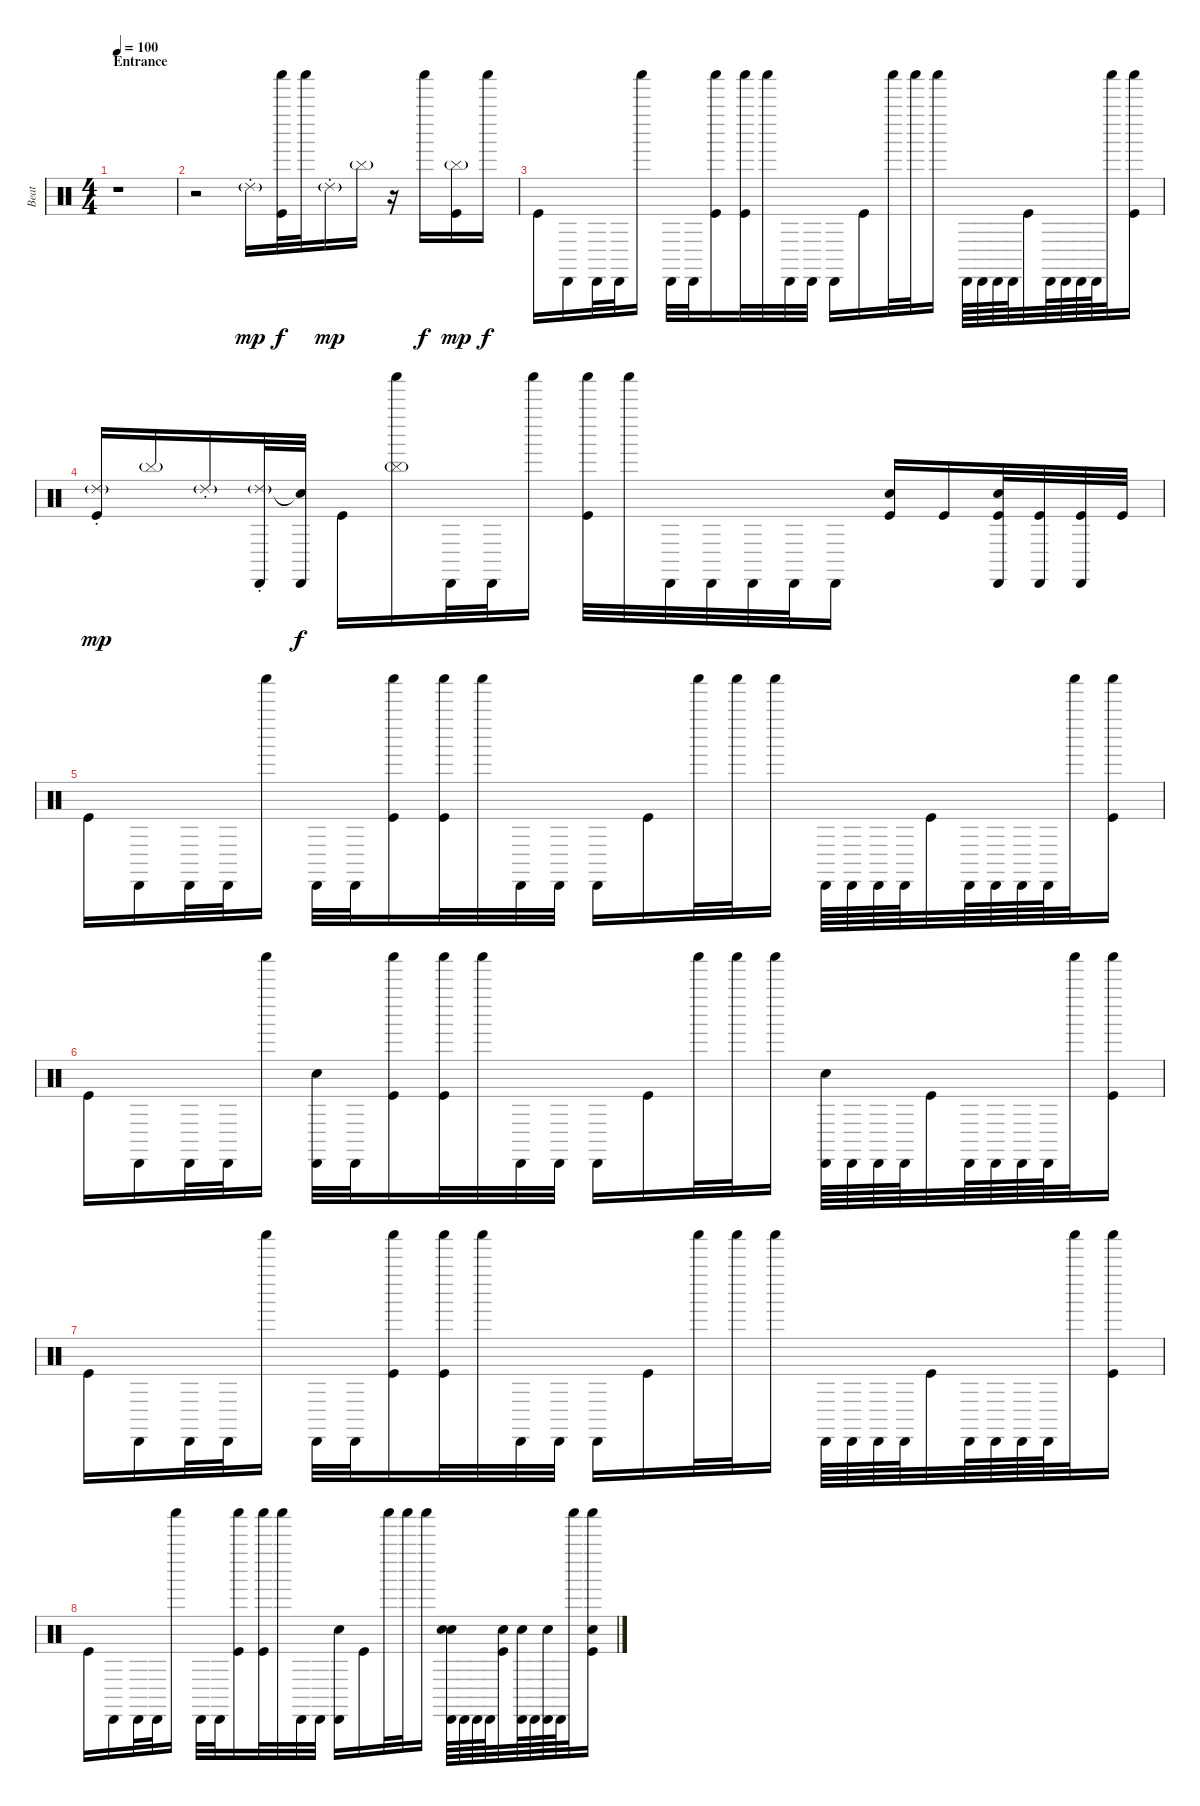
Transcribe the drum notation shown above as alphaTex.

\track ("Beat" "Beat") {instrument percussion}
\staff {score}
\articulation defaults
\ts (4 4)
\section ("" "Entrance")
\tempo 100
\clef neutral
\ks c
r.1{dy mp} |
r.2 "Ride (choke) 2"{g}.16 ("Shaker (hit)" "Kick (hit)").32{dy f} "Shaker (hit)".32 "Ride (choke) 2"{g}.16{dy mp} "Cymbal (hit)"{g}.16 r.16 "Shaker (hit)".16{dy f} ("Cymbal (hit)"{g} "Kick (hit)").16{dy mp} "Shaker (hit)".16{dy f} |
"Kick (hit)".16 "Cabasa (hit)".16 "Cabasa (hit)".32 "Cabasa (hit)".32 "Shaker (hit)".16 "Cabasa (hit)".32 "Cabasa (hit)".32 ("Shaker (hit)" "Kick (hit)").16 ("Shaker (hit)" "Kick (hit)").32 "Shaker (hit)".32 "Cabasa (hit)".32 "Cabasa (hit)".32 "Cabasa (hit)".16 "Kick (hit)".16 "Shaker (hit)".32 "Shaker (hit)".32 "Shaker (hit)".16 "Cabasa (hit)".64 "Cabasa (hit)".64 "Cabasa (hit)".64 "Cabasa (hit)".64 "Kick (hit)".32 "Cabasa (hit)".64 "Cabasa (hit)".64 "Cabasa (hit)".64 "Cabasa (hit)".64 "Shaker (hit)".32 ("Shaker (hit)" "Kick (hit)").16 |
("Ride (choke) 2"{g} "Kick (hit)").16{dy mp} "Cymbal (hit)"{g}.16 "Ride (choke) 2"{g}.16 ("Ride (choke) 2"{g} "Cabasa (hit)").32 ("Snare (hit)"{t} "Cabasa (hit)").32{dy f} "Kick (hit)".16 ("Cymbal (hit)"{g} "Shaker (hit)").16 "Cabasa (hit)".32 "Cabasa (hit)".32 "Shaker (hit)".16 ("Shaker (hit)" "Kick (hit)").32 "Shaker (hit)".32 "Cabasa (hit)".32 "Cabasa (hit)".32 "Cabasa (hit)".32 "Cabasa (hit)".32 "Cabasa (hit)".16 ("Snare (hit) 2" "Kick (hit)").16 "Kick (hit)".16 ("Cabasa (hit)" "Snare (hit) 2" "Kick (hit)").32 ("Cabasa (hit)" "Kick (hit)").32 ("Cabasa (hit)" "Kick (hit)").32 "Kick (hit)".32 |
"Kick (hit)".16 "Cabasa (hit)".16 "Cabasa (hit)".32 "Cabasa (hit)".32 "Shaker (hit)".16 "Cabasa (hit)".32 "Cabasa (hit)".32 ("Shaker (hit)" "Kick (hit)").16 ("Shaker (hit)" "Kick (hit)").32 "Shaker (hit)".32 "Cabasa (hit)".32 "Cabasa (hit)".32 "Cabasa (hit)".16 "Kick (hit)".16 "Shaker (hit)".32 "Shaker (hit)".32 "Shaker (hit)".16 "Cabasa (hit)".64 "Cabasa (hit)".64 "Cabasa (hit)".64 "Cabasa (hit)".64 "Kick (hit)".32 "Cabasa (hit)".64 "Cabasa (hit)".64 "Cabasa (hit)".64 "Cabasa (hit)".64 "Shaker (hit)".32 ("Shaker (hit)" "Kick (hit)").16 |
"Kick (hit)".16 "Cabasa (hit)".16 "Cabasa (hit)".32 "Cabasa (hit)".32 "Shaker (hit)".16 ("Cabasa (hit)" "Snare (hit) 2").32 "Cabasa (hit)".32 ("Shaker (hit)" "Kick (hit)").16 ("Shaker (hit)" "Kick (hit)").32 "Shaker (hit)".32 "Cabasa (hit)".32 "Cabasa (hit)".32 "Cabasa (hit)".16 "Kick (hit)".16 "Shaker (hit)".32 "Shaker (hit)".32 "Shaker (hit)".16 ("Cabasa (hit)" "Snare (hit) 2").64 "Cabasa (hit)".64 "Cabasa (hit)".64 "Cabasa (hit)".64 "Kick (hit)".32 "Cabasa (hit)".64 "Cabasa (hit)".64 "Cabasa (hit)".64 "Cabasa (hit)".64 "Shaker (hit)".32 ("Shaker (hit)" "Kick (hit)").16 |
"Kick (hit)".16 "Cabasa (hit)".16 "Cabasa (hit)".32 "Cabasa (hit)".32 "Shaker (hit)".16 "Cabasa (hit)".32 "Cabasa (hit)".32 ("Shaker (hit)" "Kick (hit)").16 ("Shaker (hit)" "Kick (hit)").32 "Shaker (hit)".32 "Cabasa (hit)".32 "Cabasa (hit)".32 "Cabasa (hit)".16 "Kick (hit)".16 "Shaker (hit)".32 "Shaker (hit)".32 "Shaker (hit)".16 "Cabasa (hit)".64 "Cabasa (hit)".64 "Cabasa (hit)".64 "Cabasa (hit)".64 "Kick (hit)".32 "Cabasa (hit)".64 "Cabasa (hit)".64 "Cabasa (hit)".64 "Cabasa (hit)".64 "Shaker (hit)".32 ("Shaker (hit)" "Kick (hit)").16 |
"Kick (hit)".16 "Cabasa (hit)".16 "Cabasa (hit)".32 "Cabasa (hit)".32 "Shaker (hit)".16 "Cabasa (hit)".32 "Cabasa (hit)".32 ("Shaker (hit)" "Kick (hit)").16 ("Shaker (hit)" "Kick (hit)").32 "Shaker (hit)".32 "Cabasa (hit)".32 "Cabasa (hit)".32 ("Cabasa (hit)" "Snare (hit) 2").16 "Kick (hit)".16 "Shaker (hit)".32 "Shaker (hit)".32 "Shaker (hit)".16 ("Cabasa (hit)" "Snare (hit) 2" "Snare (hit) 2").64 "Cabasa (hit)".64 "Cabasa (hit)".64 "Cabasa (hit)".64 ("Snare (hit) 2" "Kick (hit)").32 ("Cabasa (hit)" "Snare (hit) 2").64 "Cabasa (hit)".64 ("Cabasa (hit)" "Snare (hit) 2").64 "Cabasa (hit)".64 "Shaker (hit)".32 ("Shaker (hit)" "Snare (hit) 2" "Kick (hit)").16
